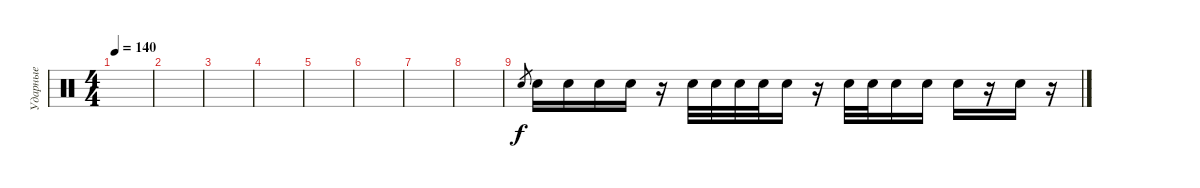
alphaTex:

\track ("Ударные" "Ударные") {instrument percussion}
\staff {score}
\articulation defaults
\ts (4 4)
\tempo 140
\clef neutral
\ks c
|
|
|
|
|
|
|
|
"Electric Snare (hit)".8{gr} "Electric Snare (hit)".16 "Electric Snare (hit)".16 "Electric Snare (hit)".16 "Electric Snare (hit)".16 r.16 "Electric Snare (hit)".32 "Electric Snare (hit)".32 "Electric Snare (hit)".32 "Electric Snare (hit)".32 "Electric Snare (hit)".16 r.16 "Electric Snare (hit)".32 "Electric Snare (hit)".32 "Electric Snare (hit)".16 "Electric Snare (hit)".16 "Electric Snare (hit)".16 r.16 "Electric Snare (hit)".16 r.16
